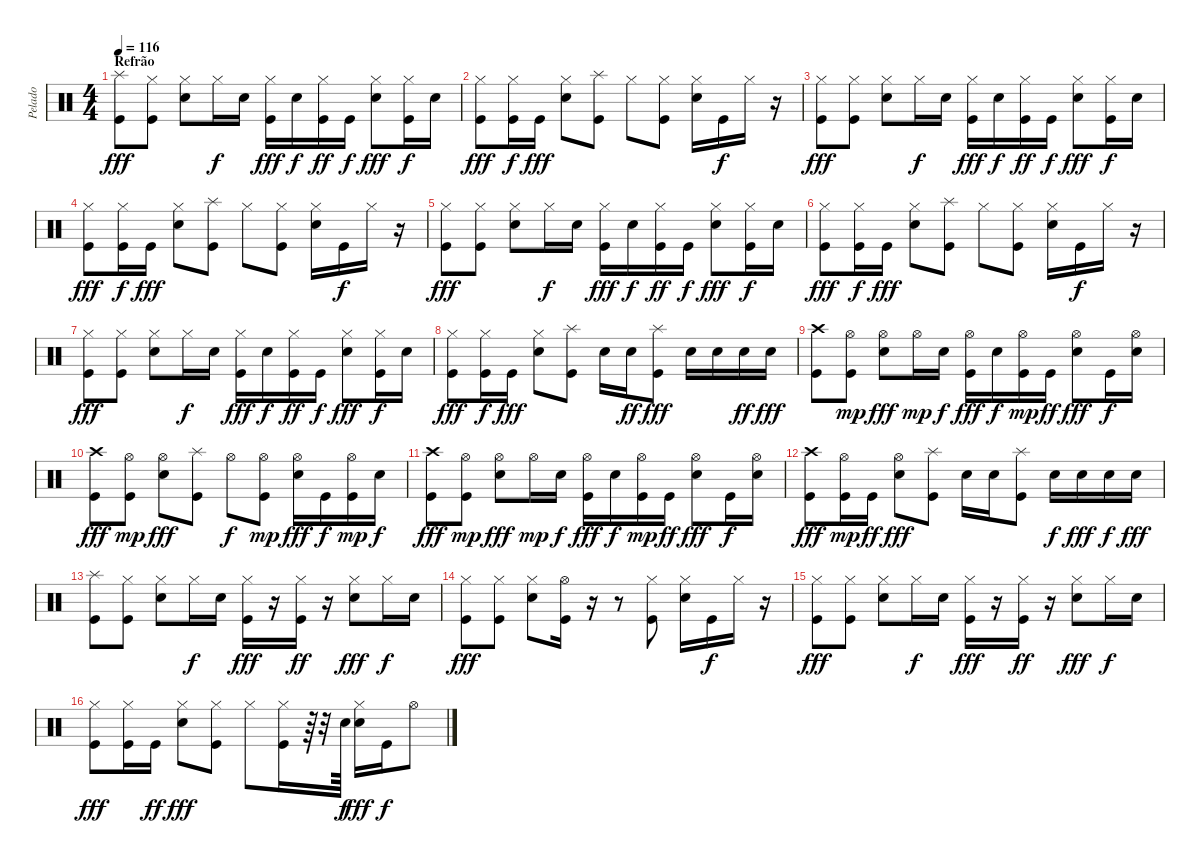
\track ("Pelado" "Pelado") {instrument percussion}
\staff {score}
\articulation defaults
\ts (4 4)
\section ("" "Refrão")
\tempo 116
\clef neutral
\ks c
("Kick (hit)" "Splash (hit)").8{dy fff} ("Kick (hit)" "Hi-Hat (closed)").8 ("Electric Snare (hit)" "Hi-Hat (closed)").8 "Hi-Hat (closed)".16{dy f} "Electric Snare (hit)".16 ("Kick (hit)" "Hi-Hat (closed)").16{dy fff} "Electric Snare (hit)".16{dy f} ("Kick (hit)" "Hi-Hat (closed)").16{dy ff} "Kick (hit)".16{dy f} ("Electric Snare (hit)" "Hi-Hat (closed)").8{dy fff} ("Kick (hit)" "Hi-Hat (closed)").16{dy f} "Electric Snare (hit)".16 |
("Kick (hit)" "Hi-Hat (closed)").8{dy fff} ("Kick (hit)" "Hi-Hat (closed)").16{dy f} "Kick (hit)".16{dy fff} ("Electric Snare (hit)" "Hi-Hat (closed)").8 ("Kick (hit)" "Splash (hit)").8 "Hi-Hat (closed)".8 ("Kick (hit)" "Hi-Hat (closed)").8 ("Electric Snare (hit)" "Hi-Hat (closed)").16 "Kick (hit)".16{dy f} "Hi-Hat (closed)".16 r.16 |
("Kick (hit)" "Hi-Hat (closed)").8{dy fff} ("Kick (hit)" "Hi-Hat (closed)").8 ("Electric Snare (hit)" "Hi-Hat (closed)").8 "Hi-Hat (closed)".16{dy f} "Electric Snare (hit)".16 ("Kick (hit)" "Hi-Hat (closed)").16{dy fff} "Electric Snare (hit)".16{dy f} ("Kick (hit)" "Hi-Hat (closed)").16{dy ff} "Kick (hit)".16{dy f} ("Electric Snare (hit)" "Hi-Hat (closed)").8{dy fff} ("Kick (hit)" "Hi-Hat (closed)").16{dy f} "Electric Snare (hit)".16 |
("Kick (hit)" "Hi-Hat (closed)").8{dy fff} ("Kick (hit)" "Hi-Hat (closed)").16{dy f} "Kick (hit)".16{dy fff} ("Electric Snare (hit)" "Hi-Hat (closed)").8 ("Kick (hit)" "Splash (hit)").8 "Hi-Hat (closed)".8 ("Kick (hit)" "Hi-Hat (closed)").8 ("Electric Snare (hit)" "Hi-Hat (closed)").16 "Kick (hit)".16{dy f} "Hi-Hat (closed)".16 r.16 |
("Kick (hit)" "Hi-Hat (closed)").8{dy fff} ("Kick (hit)" "Hi-Hat (closed)").8 ("Electric Snare (hit)" "Hi-Hat (closed)").8 "Hi-Hat (closed)".16{dy f} "Electric Snare (hit)".16 ("Kick (hit)" "Hi-Hat (closed)").16{dy fff} "Electric Snare (hit)".16{dy f} ("Kick (hit)" "Hi-Hat (closed)").16{dy ff} "Kick (hit)".16{dy f} ("Electric Snare (hit)" "Hi-Hat (closed)").8{dy fff} ("Kick (hit)" "Hi-Hat (closed)").16{dy f} "Electric Snare (hit)".16 |
("Kick (hit)" "Hi-Hat (closed)").8{dy fff} ("Kick (hit)" "Hi-Hat (closed)").16{dy f} "Kick (hit)".16{dy fff} ("Electric Snare (hit)" "Hi-Hat (closed)").8 ("Kick (hit)" "Splash (hit)").8 "Hi-Hat (closed)".8 ("Kick (hit)" "Hi-Hat (closed)").8 ("Electric Snare (hit)" "Hi-Hat (closed)").16 "Kick (hit)".16{dy f} "Hi-Hat (closed)".16 r.16 |
("Kick (hit)" "Hi-Hat (closed)").8{dy fff} ("Kick (hit)" "Hi-Hat (closed)").8 ("Electric Snare (hit)" "Hi-Hat (closed)").8 "Hi-Hat (closed)".16{dy f} "Electric Snare (hit)".16 ("Kick (hit)" "Hi-Hat (closed)").16{dy fff} "Electric Snare (hit)".16{dy f} ("Kick (hit)" "Hi-Hat (closed)").16{dy ff} "Kick (hit)".16{dy f} ("Electric Snare (hit)" "Hi-Hat (closed)").8{dy fff} ("Kick (hit)" "Hi-Hat (closed)").16{dy f} "Electric Snare (hit)".16 |
("Kick (hit)" "Hi-Hat (closed)").8{dy fff} ("Kick (hit)" "Hi-Hat (closed)").16{dy f} "Kick (hit)".16{dy fff} ("Electric Snare (hit)" "Hi-Hat (closed)").8 ("Kick (hit)" "Splash (hit)").8 "Electric Snare (hit)".16 "Electric Snare (hit)".16{dy ff} ("Kick (hit)" "Splash (hit)").8{dy fff} "Electric Snare (hit)".16 "Electric Snare (hit)".16 "Electric Snare (hit)".16{dy ff} "Electric Snare (hit)".16{dy fff} |
("Kick (hit)" "Crash high (hit)").8 ("Kick (hit)" "Hi-Hat (open)").8{dy mp} ("Electric Snare (hit)" "Hi-Hat (open)").8{dy fff} "Hi-Hat (open)".16{dy mp} "Electric Snare (hit)".16{dy f} ("Kick (hit)" "Hi-Hat (open)").16{dy fff} "Electric Snare (hit)".16{dy f} ("Kick (hit)" "Hi-Hat (open)").16{dy mp} "Kick (hit)".16{dy ff} ("Electric Snare (hit)" "Hi-Hat (open)").8{dy fff} "Kick (hit)".16{dy f} ("Electric Snare (hit)" "Hi-Hat (open)").16 |
("Kick (hit)" "Crash high (hit)").8{dy fff} ("Kick (hit)" "Hi-Hat (open)").8{dy mp} ("Electric Snare (hit)" "Hi-Hat (open)").8{dy fff} ("Kick (hit)" "Splash (hit)").8 "Hi-Hat (open)".8{dy f} ("Kick (hit)" "Hi-Hat (open)").8{dy mp} ("Electric Snare (hit)" "Hi-Hat (open)").16{dy fff} "Kick (hit)".16{dy f} ("Kick (hit)" "Hi-Hat (open)").16{dy mp} "Electric Snare (hit)".16{dy f} |
("Kick (hit)" "Crash high (hit)").8{dy fff} ("Kick (hit)" "Hi-Hat (open)").8{dy mp} ("Electric Snare (hit)" "Hi-Hat (open)").8{dy fff} "Hi-Hat (open)".16{dy mp} "Electric Snare (hit)".16{dy f} ("Kick (hit)" "Hi-Hat (open)").16{dy fff} "Electric Snare (hit)".16{dy f} ("Kick (hit)" "Hi-Hat (open)").16{dy mp} "Kick (hit)".16{dy ff} ("Electric Snare (hit)" "Hi-Hat (open)").8{dy fff} "Kick (hit)".16{dy f} ("Electric Snare (hit)" "Hi-Hat (open)").16 |
("Kick (hit)" "Crash high (hit)").8{dy fff} ("Kick (hit)" "Hi-Hat (open)").16{dy mp} "Kick (hit)".16{dy ff} ("Electric Snare (hit)" "Hi-Hat (open)").8{dy fff} ("Kick (hit)" "Splash (hit)").8 "Electric Snare (hit)".16 "Electric Snare (hit)".16 ("Kick (hit)" "Splash (hit)").8 "Electric Snare (hit)".16{dy f} "Electric Snare (hit)".16{dy fff} "Electric Snare (hit)".16{dy f} "Electric Snare (hit)".16{dy fff} |
("Kick (hit)" "Splash (hit)").8 ("Kick (hit)" "Hi-Hat (closed)").8 ("Electric Snare (hit)" "Hi-Hat (closed)").8 "Hi-Hat (closed)".16{dy f} "Electric Snare (hit)".16 ("Kick (hit)" "Hi-Hat (closed)").16{dy fff} r.16 ("Kick (hit)" "Hi-Hat (closed)").16{dy ff} r.16 ("Electric Snare (hit)" "Hi-Hat (closed)").8{dy fff} "Hi-Hat (closed)".16{dy f} "Electric Snare (hit)".16 |
("Kick (hit)" "Hi-Hat (closed)").8{dy fff} ("Kick (hit)" "Hi-Hat (closed)").8 ("Electric Snare (hit)" "Hi-Hat (closed)").8 ("Kick (hit)" "Hi-Hat (open)").16 r.16 r.8 ("Kick (hit)" "Hi-Hat (closed)").8 ("Electric Snare (hit)" "Hi-Hat (closed)").16 "Kick (hit)".16{dy f} "Hi-Hat (closed)".16 r.16 |
("Kick (hit)" "Hi-Hat (closed)").8{dy fff} ("Kick (hit)" "Hi-Hat (closed)").8 ("Electric Snare (hit)" "Hi-Hat (closed)").8 "Hi-Hat (closed)".16{dy f} "Electric Snare (hit)".16 ("Kick (hit)" "Hi-Hat (closed)").16{dy fff} r.16 ("Kick (hit)" "Hi-Hat (closed)").16{dy ff} r.16 ("Electric Snare (hit)" "Hi-Hat (closed)").8{dy fff} "Hi-Hat (closed)".16{dy f} "Electric Snare (hit)".16 |
("Kick (hit)" "Hi-Hat (closed)").8{dy fff} ("Kick (hit)" "Hi-Hat (closed)").16 "Kick (hit)".16{dy ff} ("Electric Snare (hit)" "Hi-Hat (closed)").8{dy fff} ("Kick (hit)" "Hi-Hat (closed)").8 "Hi-Hat (closed)".8 ("Kick (hit)" "Hi-Hat (closed)").16 r.64 r.32 "Electric Snare (hit)".64{dy f} ("Electric Snare (hit)" "Hi-Hat (closed)").16{dy fff} "Kick (hit)".16{dy f} "Hi-Hat (open)".8
